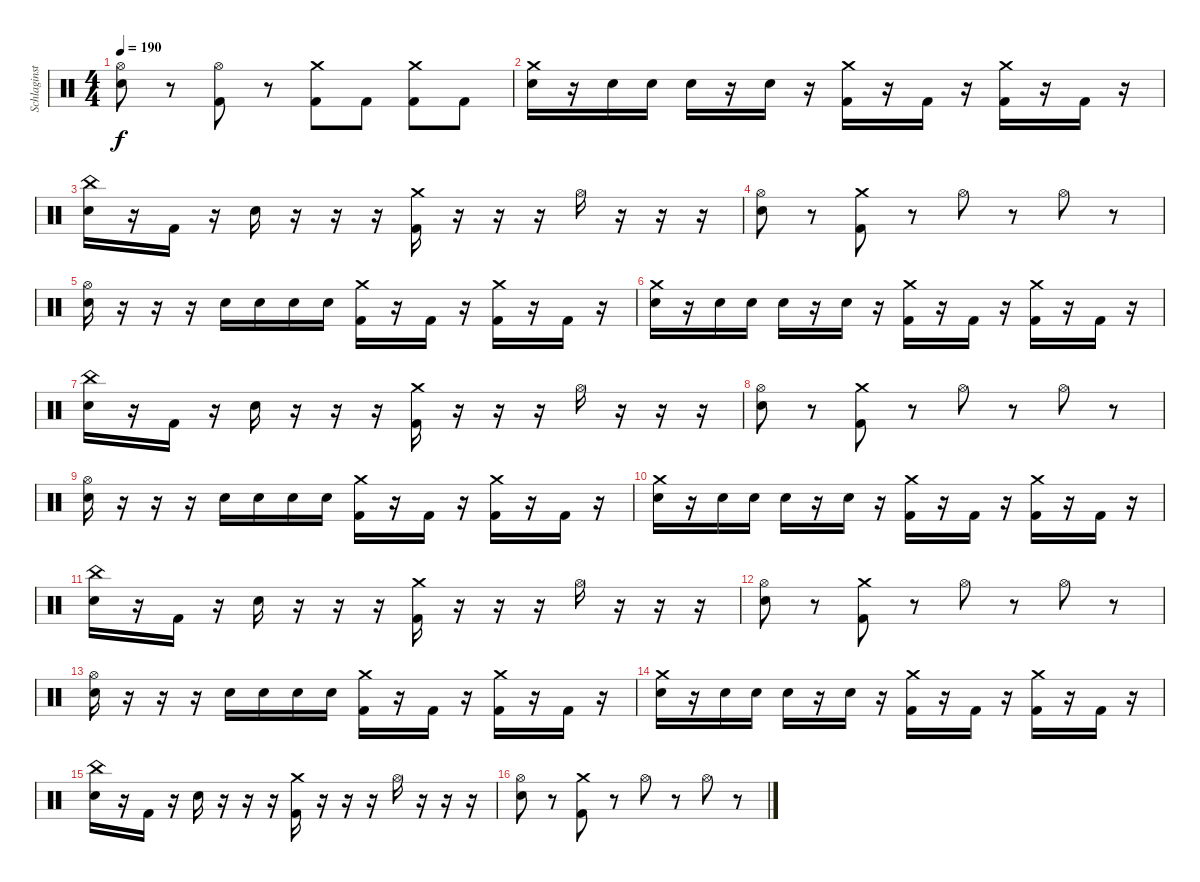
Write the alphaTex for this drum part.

\track ("Schlaginstrumente - Auswahl" "Schlaginst") {instrument percussion}
\staff {score}
\articulation defaults
\ts (4 4)
\tempo 190
\clef neutral
\ks c
("Electric Snare (hit)" "Hi-Hat (open)").8{dy f} r.8 ("Kick (hit) 2" "Hi-Hat (open)").8 r.8 ("Kick (hit) 2" "Crash medium (hit)").8 "Kick (hit) 2".8 ("Kick (hit) 2" "Crash medium (hit)").8 "Kick (hit) 2".8 |
("Electric Snare (hit)" "Crash medium (hit)").16 r.16 "Electric Snare (hit)".16 "Electric Snare (hit)".16 "Electric Snare (hit)".16 r.16 "Electric Snare (hit)".16 r.16 ("Kick (hit) 2" "Crash medium (hit)").16 r.16 "Kick (hit) 2".16 r.16 ("Kick (hit) 2" "Crash medium (hit)").16 r.16 "Kick (hit) 2".16 r.16 |
("Electric Snare (hit)" "China (hit)").16 r.16 "Kick (hit) 2".16 r.16 "Electric Snare (hit)".16 r.16 r.16 r.16 ("Kick (hit) 2" "Crash medium (hit)").16 r.16 r.16 r.16 "Hi-Hat (open)".16 r.16 r.16 r.16 |
("Electric Snare (hit)" "Hi-Hat (open)").8 r.8 ("Kick (hit) 2" "Crash medium (hit)").8 r.8 "Hi-Hat (open)".8 r.8 "Hi-Hat (open)".8 r.8 |
("Electric Snare (hit)" "Hi-Hat (open)").16 r.16 r.16 r.16 "Electric Snare (hit)".16 "Electric Snare (hit)".16 "Electric Snare (hit)".16 "Electric Snare (hit)".16 ("Kick (hit) 2" "Crash medium (hit)").16 r.16 "Kick (hit) 2".16 r.16 ("Kick (hit) 2" "Crash medium (hit)").16 r.16 "Kick (hit) 2".16 r.16 |
("Electric Snare (hit)" "Crash medium (hit)").16 r.16 "Electric Snare (hit)".16 "Electric Snare (hit)".16 "Electric Snare (hit)".16 r.16 "Electric Snare (hit)".16 r.16 ("Kick (hit) 2" "Crash medium (hit)").16 r.16 "Kick (hit) 2".16 r.16 ("Kick (hit) 2" "Crash medium (hit)").16 r.16 "Kick (hit) 2".16 r.16 |
("Electric Snare (hit)" "China (hit)").16 r.16 "Kick (hit) 2".16 r.16 "Electric Snare (hit)".16 r.16 r.16 r.16 ("Kick (hit) 2" "Crash medium (hit)").16 r.16 r.16 r.16 "Hi-Hat (open)".16 r.16 r.16 r.16 |
("Electric Snare (hit)" "Hi-Hat (open)").8 r.8 ("Kick (hit) 2" "Crash medium (hit)").8 r.8 "Hi-Hat (open)".8 r.8 "Hi-Hat (open)".8 r.8 |
("Electric Snare (hit)" "Hi-Hat (open)").16 r.16 r.16 r.16 "Electric Snare (hit)".16 "Electric Snare (hit)".16 "Electric Snare (hit)".16 "Electric Snare (hit)".16 ("Kick (hit) 2" "Crash medium (hit)").16 r.16 "Kick (hit) 2".16 r.16 ("Kick (hit) 2" "Crash medium (hit)").16 r.16 "Kick (hit) 2".16 r.16 |
("Electric Snare (hit)" "Crash medium (hit)").16 r.16 "Electric Snare (hit)".16 "Electric Snare (hit)".16 "Electric Snare (hit)".16 r.16 "Electric Snare (hit)".16 r.16 ("Kick (hit) 2" "Crash medium (hit)").16 r.16 "Kick (hit) 2".16 r.16 ("Kick (hit) 2" "Crash medium (hit)").16 r.16 "Kick (hit) 2".16 r.16 |
("Electric Snare (hit)" "China (hit)").16 r.16 "Kick (hit) 2".16 r.16 "Electric Snare (hit)".16 r.16 r.16 r.16 ("Kick (hit) 2" "Crash medium (hit)").16 r.16 r.16 r.16 "Hi-Hat (open)".16 r.16 r.16 r.16 |
("Electric Snare (hit)" "Hi-Hat (open)").8 r.8 ("Kick (hit) 2" "Crash medium (hit)").8 r.8 "Hi-Hat (open)".8 r.8 "Hi-Hat (open)".8 r.8 |
("Electric Snare (hit)" "Hi-Hat (open)").16 r.16 r.16 r.16 "Electric Snare (hit)".16 "Electric Snare (hit)".16 "Electric Snare (hit)".16 "Electric Snare (hit)".16 ("Kick (hit) 2" "Crash medium (hit)").16 r.16 "Kick (hit) 2".16 r.16 ("Kick (hit) 2" "Crash medium (hit)").16 r.16 "Kick (hit) 2".16 r.16 |
("Electric Snare (hit)" "Crash medium (hit)").16 r.16 "Electric Snare (hit)".16 "Electric Snare (hit)".16 "Electric Snare (hit)".16 r.16 "Electric Snare (hit)".16 r.16 ("Kick (hit) 2" "Crash medium (hit)").16 r.16 "Kick (hit) 2".16 r.16 ("Kick (hit) 2" "Crash medium (hit)").16 r.16 "Kick (hit) 2".16 r.16 |
("Electric Snare (hit)" "China (hit)").16 r.16 "Kick (hit) 2".16 r.16 "Electric Snare (hit)".16 r.16 r.16 r.16 ("Kick (hit) 2" "Crash medium (hit)").16 r.16 r.16 r.16 "Hi-Hat (open)".16 r.16 r.16 r.16 |
("Electric Snare (hit)" "Hi-Hat (open)").8 r.8 ("Kick (hit) 2" "Crash medium (hit)").8 r.8 "Hi-Hat (open)".8 r.8 "Hi-Hat (open)".8 r.8
